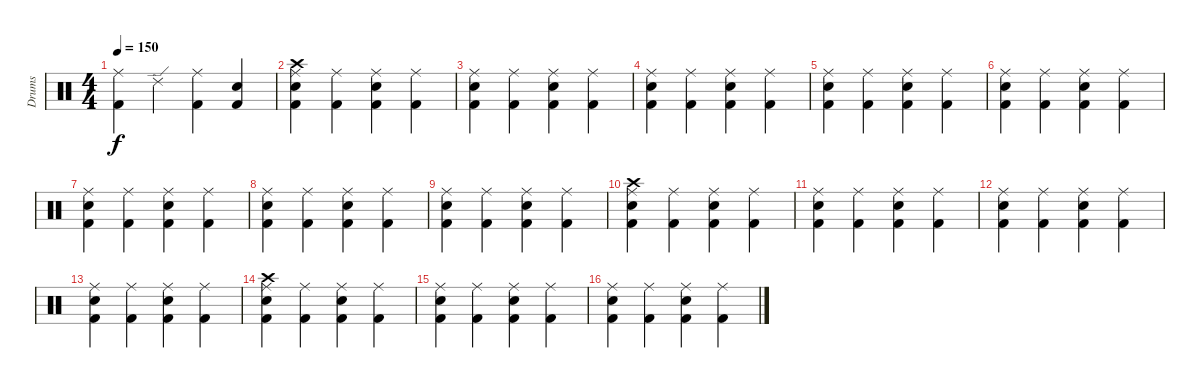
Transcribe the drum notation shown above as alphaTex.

\track ("Drums" "Drums") {instrument percussion}
\staff {score}
\articulation defaults
\ts (4 4)
\tempo 150
\clef neutral
\ks c
("Ride (middle)" "Kick (hit) 2").4{dy f} "Ride (edge) 2".4 ("Ride (middle)" "Kick (hit) 2").4 ("Electric Snare (hit)" "Kick (hit) 2").4 |
("Crash high (hit)" "Ride (middle)" "Electric Snare (hit)" "Kick (hit) 2").4 ("Ride (middle)" "Kick (hit) 2").4 ("Ride (middle)" "Electric Snare (hit)" "Kick (hit) 2").4 ("Ride (middle)" "Kick (hit) 2").4 |
("Ride (middle)" "Electric Snare (hit)" "Kick (hit) 2").4 ("Ride (middle)" "Kick (hit) 2").4 ("Ride (middle)" "Electric Snare (hit)" "Kick (hit) 2").4 ("Ride (middle)" "Kick (hit) 2").4 |
("Ride (middle)" "Electric Snare (hit)" "Kick (hit) 2").4 ("Ride (middle)" "Kick (hit) 2").4 ("Ride (middle)" "Electric Snare (hit)" "Kick (hit) 2").4 ("Ride (middle)" "Kick (hit) 2").4 |
("Ride (middle)" "Electric Snare (hit)" "Kick (hit) 2").4 ("Ride (middle)" "Kick (hit) 2").4 ("Ride (middle)" "Electric Snare (hit)" "Kick (hit) 2").4 ("Ride (middle)" "Kick (hit) 2").4 |
("Ride (middle)" "Electric Snare (hit)" "Kick (hit) 2").4 ("Ride (middle)" "Kick (hit) 2").4 ("Ride (middle)" "Electric Snare (hit)" "Kick (hit) 2").4 ("Ride (middle)" "Kick (hit) 2").4 |
("Ride (middle)" "Electric Snare (hit)" "Kick (hit) 2").4 ("Ride (middle)" "Kick (hit) 2").4 ("Ride (middle)" "Electric Snare (hit)" "Kick (hit) 2").4 ("Ride (middle)" "Kick (hit) 2").4 |
("Ride (middle)" "Electric Snare (hit)" "Kick (hit) 2").4 ("Ride (middle)" "Kick (hit) 2").4 ("Ride (middle)" "Electric Snare (hit)" "Kick (hit) 2").4 ("Ride (middle)" "Kick (hit) 2").4 |
("Ride (middle)" "Electric Snare (hit)" "Kick (hit) 2").4 ("Ride (middle)" "Kick (hit) 2").4 ("Ride (middle)" "Electric Snare (hit)" "Kick (hit) 2").4 ("Ride (middle)" "Kick (hit) 2").4 |
("Crash high (hit)" "Ride (middle)" "Electric Snare (hit)" "Kick (hit) 2").4 ("Ride (middle)" "Kick (hit) 2").4 ("Ride (middle)" "Electric Snare (hit)" "Kick (hit) 2").4 ("Ride (middle)" "Kick (hit) 2").4 |
("Ride (middle)" "Electric Snare (hit)" "Kick (hit) 2").4 ("Ride (middle)" "Kick (hit) 2").4 ("Ride (middle)" "Electric Snare (hit)" "Kick (hit) 2").4 ("Ride (middle)" "Kick (hit) 2").4 |
("Ride (middle)" "Electric Snare (hit)" "Kick (hit) 2").4 ("Ride (middle)" "Kick (hit) 2").4 ("Ride (middle)" "Electric Snare (hit)" "Kick (hit) 2").4 ("Ride (middle)" "Kick (hit) 2").4 |
("Ride (middle)" "Electric Snare (hit)" "Kick (hit) 2").4 ("Ride (middle)" "Kick (hit) 2").4 ("Ride (middle)" "Electric Snare (hit)" "Kick (hit) 2").4 ("Ride (middle)" "Kick (hit) 2").4 |
("Crash high (hit)" "Ride (middle)" "Electric Snare (hit)" "Kick (hit) 2").4 ("Ride (middle)" "Kick (hit) 2").4 ("Ride (middle)" "Electric Snare (hit)" "Kick (hit) 2").4 ("Ride (middle)" "Kick (hit) 2").4 |
("Ride (middle)" "Electric Snare (hit)" "Kick (hit) 2").4 ("Ride (middle)" "Kick (hit) 2").4 ("Ride (middle)" "Electric Snare (hit)" "Kick (hit) 2").4 ("Ride (middle)" "Kick (hit) 2").4 |
("Ride (middle)" "Electric Snare (hit)" "Kick (hit) 2").4 ("Ride (middle)" "Kick (hit) 2").4 ("Ride (middle)" "Electric Snare (hit)" "Kick (hit) 2").4 ("Ride (middle)" "Kick (hit) 2").4
